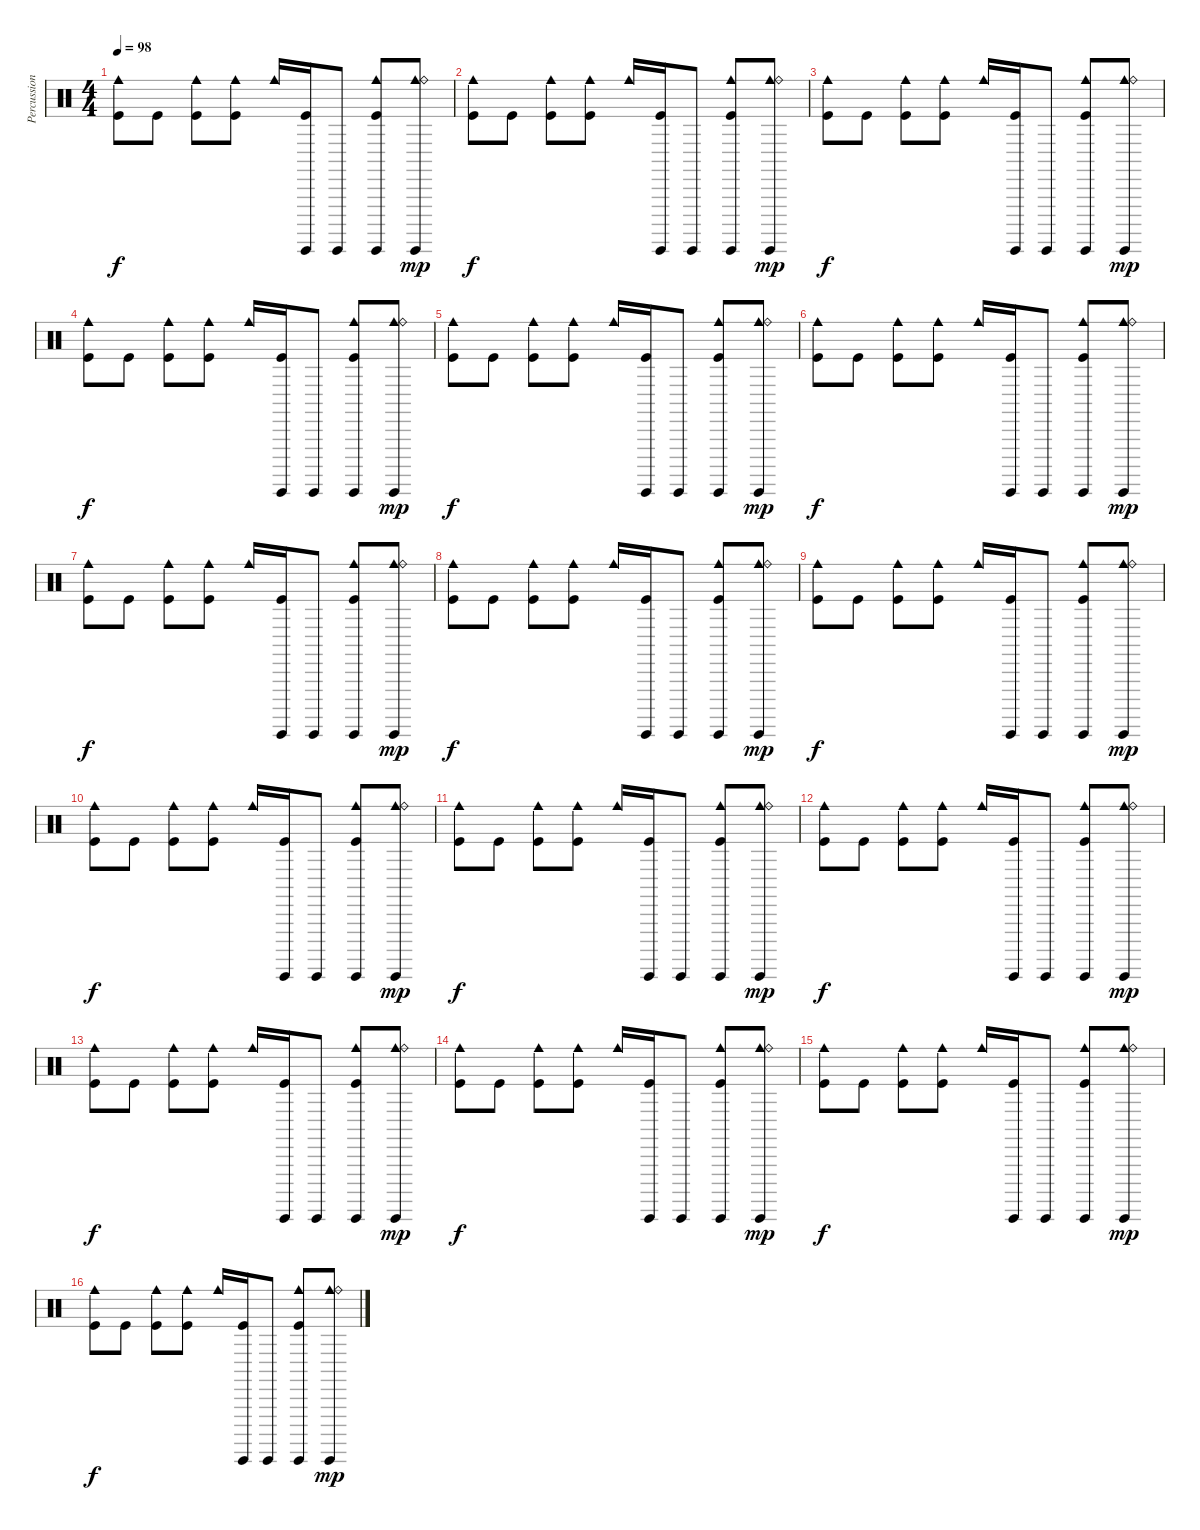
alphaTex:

\track ("Percussion" "Percussion") {instrument percussion}
\staff {score}
\articulation defaults
\ts (4 4)
\tempo 98
\clef neutral
\ks c
("Cowbell medium (hit)" "Kick (hit)").8{dy f} "Kick (hit)".8 ("Cowbell medium (hit)" "Kick (hit)").8 ("Cowbell medium (hit)" "Kick (hit)").8 "Cowbell medium (hit)".16 ("Guiro (hit)" "Kick (hit)").16 "Guiro (hit)".8 ("Cowbell medium (hit)" "Guiro (hit)" "Kick (hit)").8 ("Cowbell medium (hit)" "Guiro (hit)" "Ride (bell)").8{dy mp} |
("Cowbell medium (hit)" "Kick (hit)").8{dy f} "Kick (hit)".8 ("Cowbell medium (hit)" "Kick (hit)").8 ("Cowbell medium (hit)" "Kick (hit)").8 "Cowbell medium (hit)".16 ("Guiro (hit)" "Kick (hit)").16 "Guiro (hit)".8 ("Cowbell medium (hit)" "Guiro (hit)" "Kick (hit)").8 ("Cowbell medium (hit)" "Guiro (hit)" "Ride (bell)").8{dy mp} |
("Cowbell medium (hit)" "Kick (hit)").8{dy f} "Kick (hit)".8 ("Cowbell medium (hit)" "Kick (hit)").8 ("Cowbell medium (hit)" "Kick (hit)").8 "Cowbell medium (hit)".16 ("Guiro (hit)" "Kick (hit)").16 "Guiro (hit)".8 ("Cowbell medium (hit)" "Guiro (hit)" "Kick (hit)").8 ("Cowbell medium (hit)" "Guiro (hit)" "Ride (bell)").8{dy mp} |
("Cowbell medium (hit)" "Kick (hit)").8{dy f} "Kick (hit)".8 ("Cowbell medium (hit)" "Kick (hit)").8 ("Cowbell medium (hit)" "Kick (hit)").8 "Cowbell medium (hit)".16 ("Guiro (hit)" "Kick (hit)").16 "Guiro (hit)".8 ("Cowbell medium (hit)" "Guiro (hit)" "Kick (hit)").8 ("Cowbell medium (hit)" "Guiro (hit)" "Ride (bell)").8{dy mp} |
("Cowbell medium (hit)" "Kick (hit)").8{dy f} "Kick (hit)".8 ("Cowbell medium (hit)" "Kick (hit)").8 ("Cowbell medium (hit)" "Kick (hit)").8 "Cowbell medium (hit)".16 ("Guiro (hit)" "Kick (hit)").16 "Guiro (hit)".8 ("Cowbell medium (hit)" "Guiro (hit)" "Kick (hit)").8 ("Cowbell medium (hit)" "Guiro (hit)" "Ride (bell)").8{dy mp} |
("Cowbell medium (hit)" "Kick (hit)").8{dy f} "Kick (hit)".8 ("Cowbell medium (hit)" "Kick (hit)").8 ("Cowbell medium (hit)" "Kick (hit)").8 "Cowbell medium (hit)".16 ("Guiro (hit)" "Kick (hit)").16 "Guiro (hit)".8 ("Cowbell medium (hit)" "Guiro (hit)" "Kick (hit)").8 ("Cowbell medium (hit)" "Guiro (hit)" "Ride (bell)").8{dy mp} |
("Cowbell medium (hit)" "Kick (hit)").8{dy f} "Kick (hit)".8 ("Cowbell medium (hit)" "Kick (hit)").8 ("Cowbell medium (hit)" "Kick (hit)").8 "Cowbell medium (hit)".16 ("Guiro (hit)" "Kick (hit)").16 "Guiro (hit)".8 ("Cowbell medium (hit)" "Guiro (hit)" "Kick (hit)").8 ("Cowbell medium (hit)" "Guiro (hit)" "Ride (bell)").8{dy mp} |
("Cowbell medium (hit)" "Kick (hit)").8{dy f} "Kick (hit)".8 ("Cowbell medium (hit)" "Kick (hit)").8 ("Cowbell medium (hit)" "Kick (hit)").8 "Cowbell medium (hit)".16 ("Guiro (hit)" "Kick (hit)").16 "Guiro (hit)".8 ("Cowbell medium (hit)" "Guiro (hit)" "Kick (hit)").8 ("Cowbell medium (hit)" "Guiro (hit)" "Ride (bell)").8{dy mp} |
("Cowbell medium (hit)" "Kick (hit)").8{dy f} "Kick (hit)".8 ("Cowbell medium (hit)" "Kick (hit)").8 ("Cowbell medium (hit)" "Kick (hit)").8 "Cowbell medium (hit)".16 ("Guiro (hit)" "Kick (hit)").16 "Guiro (hit)".8 ("Cowbell medium (hit)" "Guiro (hit)" "Kick (hit)").8 ("Cowbell medium (hit)" "Guiro (hit)" "Ride (bell)").8{dy mp} |
("Cowbell medium (hit)" "Kick (hit)").8{dy f} "Kick (hit)".8 ("Cowbell medium (hit)" "Kick (hit)").8 ("Cowbell medium (hit)" "Kick (hit)").8 "Cowbell medium (hit)".16 ("Guiro (hit)" "Kick (hit)").16 "Guiro (hit)".8 ("Cowbell medium (hit)" "Guiro (hit)" "Kick (hit)").8 ("Cowbell medium (hit)" "Guiro (hit)" "Ride (bell)").8{dy mp} |
("Cowbell medium (hit)" "Kick (hit)").8{dy f} "Kick (hit)".8 ("Cowbell medium (hit)" "Kick (hit)").8 ("Cowbell medium (hit)" "Kick (hit)").8 "Cowbell medium (hit)".16 ("Guiro (hit)" "Kick (hit)").16 "Guiro (hit)".8 ("Cowbell medium (hit)" "Guiro (hit)" "Kick (hit)").8 ("Cowbell medium (hit)" "Guiro (hit)" "Ride (bell)").8{dy mp} |
("Cowbell medium (hit)" "Kick (hit)").8{dy f} "Kick (hit)".8 ("Cowbell medium (hit)" "Kick (hit)").8 ("Cowbell medium (hit)" "Kick (hit)").8 "Cowbell medium (hit)".16 ("Guiro (hit)" "Kick (hit)").16 "Guiro (hit)".8 ("Cowbell medium (hit)" "Guiro (hit)" "Kick (hit)").8 ("Cowbell medium (hit)" "Guiro (hit)" "Ride (bell)").8{dy mp} |
("Cowbell medium (hit)" "Kick (hit)").8{dy f} "Kick (hit)".8 ("Cowbell medium (hit)" "Kick (hit)").8 ("Cowbell medium (hit)" "Kick (hit)").8 "Cowbell medium (hit)".16 ("Guiro (hit)" "Kick (hit)").16 "Guiro (hit)".8 ("Cowbell medium (hit)" "Guiro (hit)" "Kick (hit)").8 ("Cowbell medium (hit)" "Guiro (hit)" "Ride (bell)").8{dy mp} |
("Cowbell medium (hit)" "Kick (hit)").8{dy f} "Kick (hit)".8 ("Cowbell medium (hit)" "Kick (hit)").8 ("Cowbell medium (hit)" "Kick (hit)").8 "Cowbell medium (hit)".16 ("Guiro (hit)" "Kick (hit)").16 "Guiro (hit)".8 ("Cowbell medium (hit)" "Guiro (hit)" "Kick (hit)").8 ("Cowbell medium (hit)" "Guiro (hit)" "Ride (bell)").8{dy mp} |
("Cowbell medium (hit)" "Kick (hit)").8{dy f} "Kick (hit)".8 ("Cowbell medium (hit)" "Kick (hit)").8 ("Cowbell medium (hit)" "Kick (hit)").8 "Cowbell medium (hit)".16 ("Guiro (hit)" "Kick (hit)").16 "Guiro (hit)".8 ("Cowbell medium (hit)" "Guiro (hit)" "Kick (hit)").8 ("Cowbell medium (hit)" "Guiro (hit)" "Ride (bell)").8{dy mp} |
("Cowbell medium (hit)" "Kick (hit)").8{dy f} "Kick (hit)".8 ("Cowbell medium (hit)" "Kick (hit)").8 ("Cowbell medium (hit)" "Kick (hit)").8 "Cowbell medium (hit)".16 ("Guiro (hit)" "Kick (hit)").16 "Guiro (hit)".8 ("Cowbell medium (hit)" "Guiro (hit)" "Kick (hit)").8 ("Cowbell medium (hit)" "Guiro (hit)" "Ride (bell)").8{dy mp}
